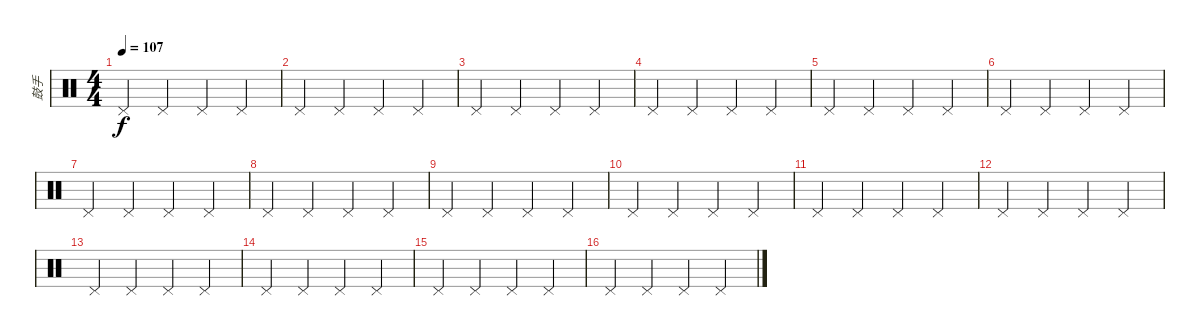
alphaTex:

\track ("鼓手" "鼓手") {instrument percussion}
\staff {score}
\articulation defaults
\ts (4 4)
\tempo 107
\clef neutral
\ks c "Pedal Hi-Hat (hit)".4{dy f} "Pedal Hi-Hat (hit)".4 "Pedal Hi-Hat (hit)".4 "Pedal Hi-Hat (hit)".4
|
"Pedal Hi-Hat (hit)".4 "Pedal Hi-Hat (hit)".4 "Pedal Hi-Hat (hit)".4 "Pedal Hi-Hat (hit)".4 |
"Pedal Hi-Hat (hit)".4 "Pedal Hi-Hat (hit)".4 "Pedal Hi-Hat (hit)".4 "Pedal Hi-Hat (hit)".4 |
"Pedal Hi-Hat (hit)".4 "Pedal Hi-Hat (hit)".4 "Pedal Hi-Hat (hit)".4 "Pedal Hi-Hat (hit)".4 |
"Pedal Hi-Hat (hit)".4 "Pedal Hi-Hat (hit)".4 "Pedal Hi-Hat (hit)".4 "Pedal Hi-Hat (hit)".4 |
"Pedal Hi-Hat (hit)".4 "Pedal Hi-Hat (hit)".4 "Pedal Hi-Hat (hit)".4 "Pedal Hi-Hat (hit)".4 |
"Pedal Hi-Hat (hit)".4 "Pedal Hi-Hat (hit)".4 "Pedal Hi-Hat (hit)".4 "Pedal Hi-Hat (hit)".4 |
"Pedal Hi-Hat (hit)".4 "Pedal Hi-Hat (hit)".4 "Pedal Hi-Hat (hit)".4 "Pedal Hi-Hat (hit)".4 |
"Pedal Hi-Hat (hit)".4 "Pedal Hi-Hat (hit)".4 "Pedal Hi-Hat (hit)".4 "Pedal Hi-Hat (hit)".4 |
"Pedal Hi-Hat (hit)".4 "Pedal Hi-Hat (hit)".4 "Pedal Hi-Hat (hit)".4 "Pedal Hi-Hat (hit)".4 |
"Pedal Hi-Hat (hit)".4 "Pedal Hi-Hat (hit)".4 "Pedal Hi-Hat (hit)".4 "Pedal Hi-Hat (hit)".4 |
"Pedal Hi-Hat (hit)".4 "Pedal Hi-Hat (hit)".4 "Pedal Hi-Hat (hit)".4 "Pedal Hi-Hat (hit)".4 |
"Pedal Hi-Hat (hit)".4 "Pedal Hi-Hat (hit)".4 "Pedal Hi-Hat (hit)".4 "Pedal Hi-Hat (hit)".4 |
"Pedal Hi-Hat (hit)".4 "Pedal Hi-Hat (hit)".4 "Pedal Hi-Hat (hit)".4 "Pedal Hi-Hat (hit)".4 |
"Pedal Hi-Hat (hit)".4 "Pedal Hi-Hat (hit)".4 "Pedal Hi-Hat (hit)".4 "Pedal Hi-Hat (hit)".4 |
"Pedal Hi-Hat (hit)".4 "Pedal Hi-Hat (hit)".4 "Pedal Hi-Hat (hit)".4 "Pedal Hi-Hat (hit)".4
